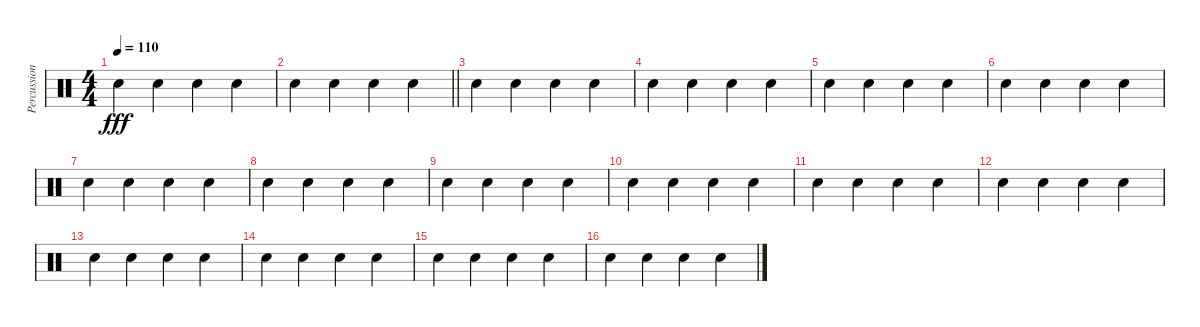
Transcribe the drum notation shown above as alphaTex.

\track ("Percussion" "Percussion") {mute instrument percussion}
\staff {score}
\articulation defaults
\ts (4 4)
\tempo 110
\clef neutral
\ks c "Snare (hit) 2".4{dy fff} "Snare (hit) 2".4 "Snare (hit) 2".4 "Snare (hit) 2".4
|
\barLineRight lightlight "Snare (hit) 2".4 "Snare (hit) 2".4 "Snare (hit) 2".4 "Snare (hit) 2".4
|
"Snare (hit) 2".4 "Snare (hit) 2".4 "Snare (hit) 2".4 "Snare (hit) 2".4 |
"Snare (hit) 2".4 "Snare (hit) 2".4 "Snare (hit) 2".4 "Snare (hit) 2".4 |
"Snare (hit) 2".4 "Snare (hit) 2".4 "Snare (hit) 2".4 "Snare (hit) 2".4 |
"Snare (hit) 2".4 "Snare (hit) 2".4 "Snare (hit) 2".4 "Snare (hit) 2".4 |
"Snare (hit) 2".4 "Snare (hit) 2".4 "Snare (hit) 2".4 "Snare (hit) 2".4 |
"Snare (hit) 2".4 "Snare (hit) 2".4 "Snare (hit) 2".4 "Snare (hit) 2".4 |
"Snare (hit) 2".4 "Snare (hit) 2".4 "Snare (hit) 2".4 "Snare (hit) 2".4 |
"Snare (hit) 2".4 "Snare (hit) 2".4 "Snare (hit) 2".4 "Snare (hit) 2".4 |
"Snare (hit) 2".4 "Snare (hit) 2".4 "Snare (hit) 2".4 "Snare (hit) 2".4 |
"Snare (hit) 2".4 "Snare (hit) 2".4 "Snare (hit) 2".4 "Snare (hit) 2".4 |
"Snare (hit) 2".4 "Snare (hit) 2".4 "Snare (hit) 2".4 "Snare (hit) 2".4 |
"Snare (hit) 2".4 "Snare (hit) 2".4 "Snare (hit) 2".4 "Snare (hit) 2".4 |
"Snare (hit) 2".4 "Snare (hit) 2".4 "Snare (hit) 2".4 "Snare (hit) 2".4 |
"Snare (hit) 2".4 "Snare (hit) 2".4 "Snare (hit) 2".4 "Snare (hit) 2".4
